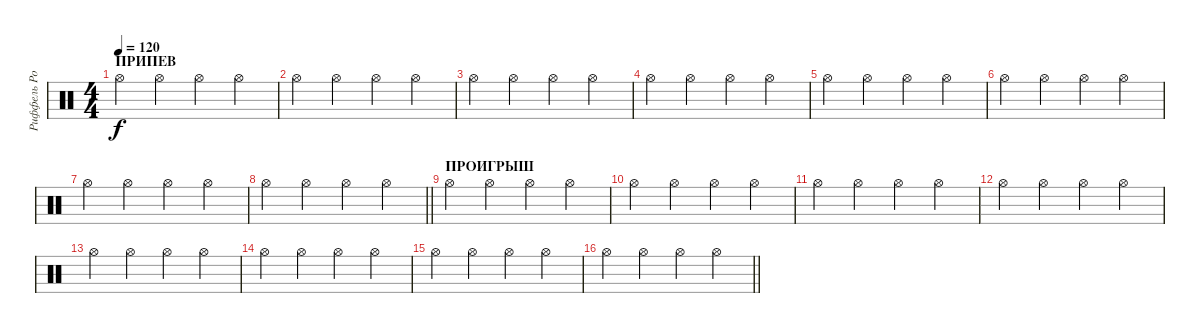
\track ("Риффель Роман(хэты)" "Риффель Ро") {instrument percussion}
\staff {score}
\articulation defaults
\ts (4 4)
\section ("" "ПРИПЕВ")
\tempo 120
\clef neutral
\ks c "Hi-Hat (open)".4{dy f} "Hi-Hat (open)".4 "Hi-Hat (open)".4 "Hi-Hat (open)".4
|
"Hi-Hat (open)".4 "Hi-Hat (open)".4 "Hi-Hat (open)".4 "Hi-Hat (open)".4 |
"Hi-Hat (open)".4 "Hi-Hat (open)".4 "Hi-Hat (open)".4 "Hi-Hat (open)".4 |
"Hi-Hat (open)".4 "Hi-Hat (open)".4 "Hi-Hat (open)".4 "Hi-Hat (open)".4 |
"Hi-Hat (open)".4 "Hi-Hat (open)".4 "Hi-Hat (open)".4 "Hi-Hat (open)".4 |
"Hi-Hat (open)".4 "Hi-Hat (open)".4 "Hi-Hat (open)".4 "Hi-Hat (open)".4 |
"Hi-Hat (open)".4 "Hi-Hat (open)".4 "Hi-Hat (open)".4 "Hi-Hat (open)".4 |
\barLineRight lightlight "Hi-Hat (open)".4 "Hi-Hat (open)".4 "Hi-Hat (open)".4 "Hi-Hat (open)".4
|
\section ("" "ПРОИГРЫШ")
"Hi-Hat (open)".4 "Hi-Hat (open)".4 "Hi-Hat (open)".4 "Hi-Hat (open)".4 |
"Hi-Hat (open)".4 "Hi-Hat (open)".4 "Hi-Hat (open)".4 "Hi-Hat (open)".4 |
"Hi-Hat (open)".4 "Hi-Hat (open)".4 "Hi-Hat (open)".4 "Hi-Hat (open)".4 |
"Hi-Hat (open)".4 "Hi-Hat (open)".4 "Hi-Hat (open)".4 "Hi-Hat (open)".4 |
"Hi-Hat (open)".4 "Hi-Hat (open)".4 "Hi-Hat (open)".4 "Hi-Hat (open)".4 |
"Hi-Hat (open)".4 "Hi-Hat (open)".4 "Hi-Hat (open)".4 "Hi-Hat (open)".4 |
"Hi-Hat (open)".4 "Hi-Hat (open)".4 "Hi-Hat (open)".4 "Hi-Hat (open)".4 |
\barLineRight lightlight "Hi-Hat (open)".4 "Hi-Hat (open)".4 "Hi-Hat (open)".4 "Hi-Hat (open)".4
